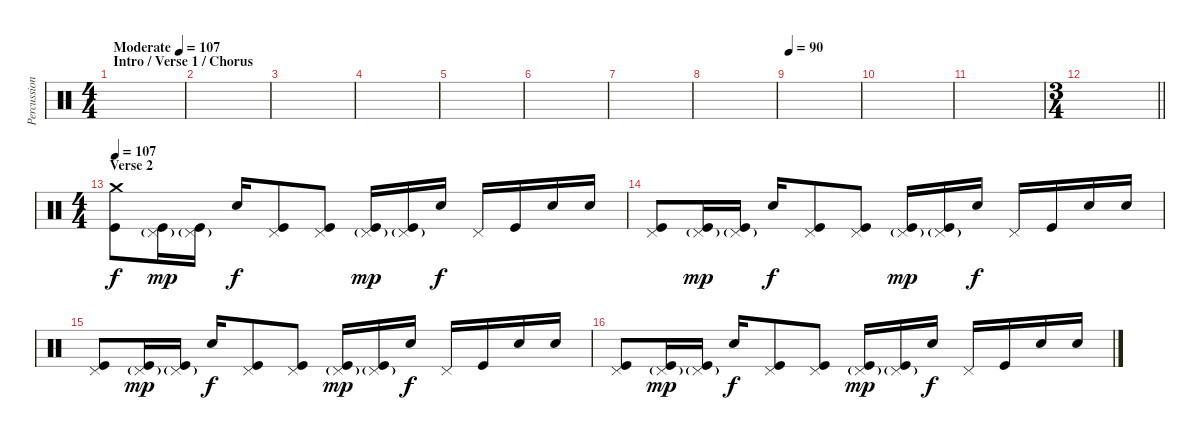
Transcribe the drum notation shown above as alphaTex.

\track ("Percussion" "Percussion") {instrument percussion}
\staff {score}
\articulation defaults
\ts (4 4)
\section ("" "Intro / Verse 1 / Chorus")
\tempo (107 "Moderate")
\clef neutral
\ks c
|
|
|
|
|
|
|
|
\tempo 90
|
|
|
\ts (3 4)
\barLineRight lightlight
|
\ts (4 4)
\section ("" "Verse 2")
\tempo 107
("Crash medium (hit)" "Kick (hit)").8 ("Pedal Hi-Hat (hit)"{g} "Kick (hit)").16{dy mp} ("Pedal Hi-Hat (hit)"{g} "Kick (hit)").16 "Snare (hit) 2".16{dy f} ("Pedal Hi-Hat (hit)" "Kick (hit)").8 ("Pedal Hi-Hat (hit)" "Kick (hit)").8 ("Pedal Hi-Hat (hit)"{g} "Kick (hit)").16{dy mp} ("Pedal Hi-Hat (hit)"{g} "Kick (hit)").16 "Snare (hit) 2".16{dy f} "Pedal Hi-Hat (hit)".16 "Kick (hit)".16 "Snare (hit) 2".16 "Snare (hit) 2".16 |
("Pedal Hi-Hat (hit)" "Kick (hit)").8 ("Pedal Hi-Hat (hit)"{g} "Kick (hit)").16{dy mp} ("Pedal Hi-Hat (hit)"{g} "Kick (hit)").16 "Snare (hit) 2".16{dy f} ("Pedal Hi-Hat (hit)" "Kick (hit)").8 ("Pedal Hi-Hat (hit)" "Kick (hit)").8 ("Pedal Hi-Hat (hit)"{g} "Kick (hit)").16{dy mp} ("Pedal Hi-Hat (hit)"{g} "Kick (hit)").16 "Snare (hit) 2".16{dy f} "Pedal Hi-Hat (hit)".16 "Kick (hit)".16 "Snare (hit) 2".16 "Snare (hit) 2".16 |
("Pedal Hi-Hat (hit)" "Kick (hit)").8 ("Pedal Hi-Hat (hit)"{g} "Kick (hit)").16{dy mp} ("Pedal Hi-Hat (hit)"{g} "Kick (hit)").16 "Snare (hit) 2".16{dy f} ("Pedal Hi-Hat (hit)" "Kick (hit)").8 ("Pedal Hi-Hat (hit)" "Kick (hit)").8 ("Pedal Hi-Hat (hit)"{g} "Kick (hit)").16{dy mp} ("Pedal Hi-Hat (hit)"{g} "Kick (hit)").16 "Snare (hit) 2".16{dy f} "Pedal Hi-Hat (hit)".16 "Kick (hit)".16 "Snare (hit) 2".16 "Snare (hit) 2".16 |
("Pedal Hi-Hat (hit)" "Kick (hit)").8 ("Pedal Hi-Hat (hit)"{g} "Kick (hit)").16{dy mp} ("Pedal Hi-Hat (hit)"{g} "Kick (hit)").16 "Snare (hit) 2".16{dy f} ("Pedal Hi-Hat (hit)" "Kick (hit)").8 ("Pedal Hi-Hat (hit)" "Kick (hit)").8 ("Pedal Hi-Hat (hit)"{g} "Kick (hit)").16{dy mp} ("Pedal Hi-Hat (hit)"{g} "Kick (hit)").16 "Snare (hit) 2".16{dy f} "Pedal Hi-Hat (hit)".16 "Kick (hit)".16 "Snare (hit) 2".16 "Snare (hit) 2".16
